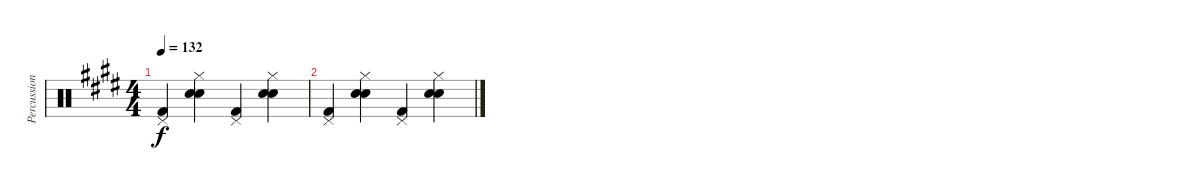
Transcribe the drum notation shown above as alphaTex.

\track ("Percussion" "Percussion") {instrument percussion}
\staff {score}
\articulation defaults
\ts (4 4)
\tempo 132
\clef neutral
\ks e
("Pedal Hi-Hat (hit)" "Kick (hit) 2").4{dy f} ("Hi-Hat (closed)" "Electric Snare (hit)" "Hand Clap (hit)").4 ("Pedal Hi-Hat (hit)" "Kick (hit) 2").4 ("Hi-Hat (closed)" "Electric Snare (hit)" "Hand Clap (hit)").4 |
("Pedal Hi-Hat (hit)" "Kick (hit) 2").4 ("Hi-Hat (closed)" "Electric Snare (hit)" "Hand Clap (hit)").4 ("Pedal Hi-Hat (hit)" "Kick (hit) 2").4 ("Hi-Hat (closed)" "Electric Snare (hit)" "Hand Clap (hit)").4
